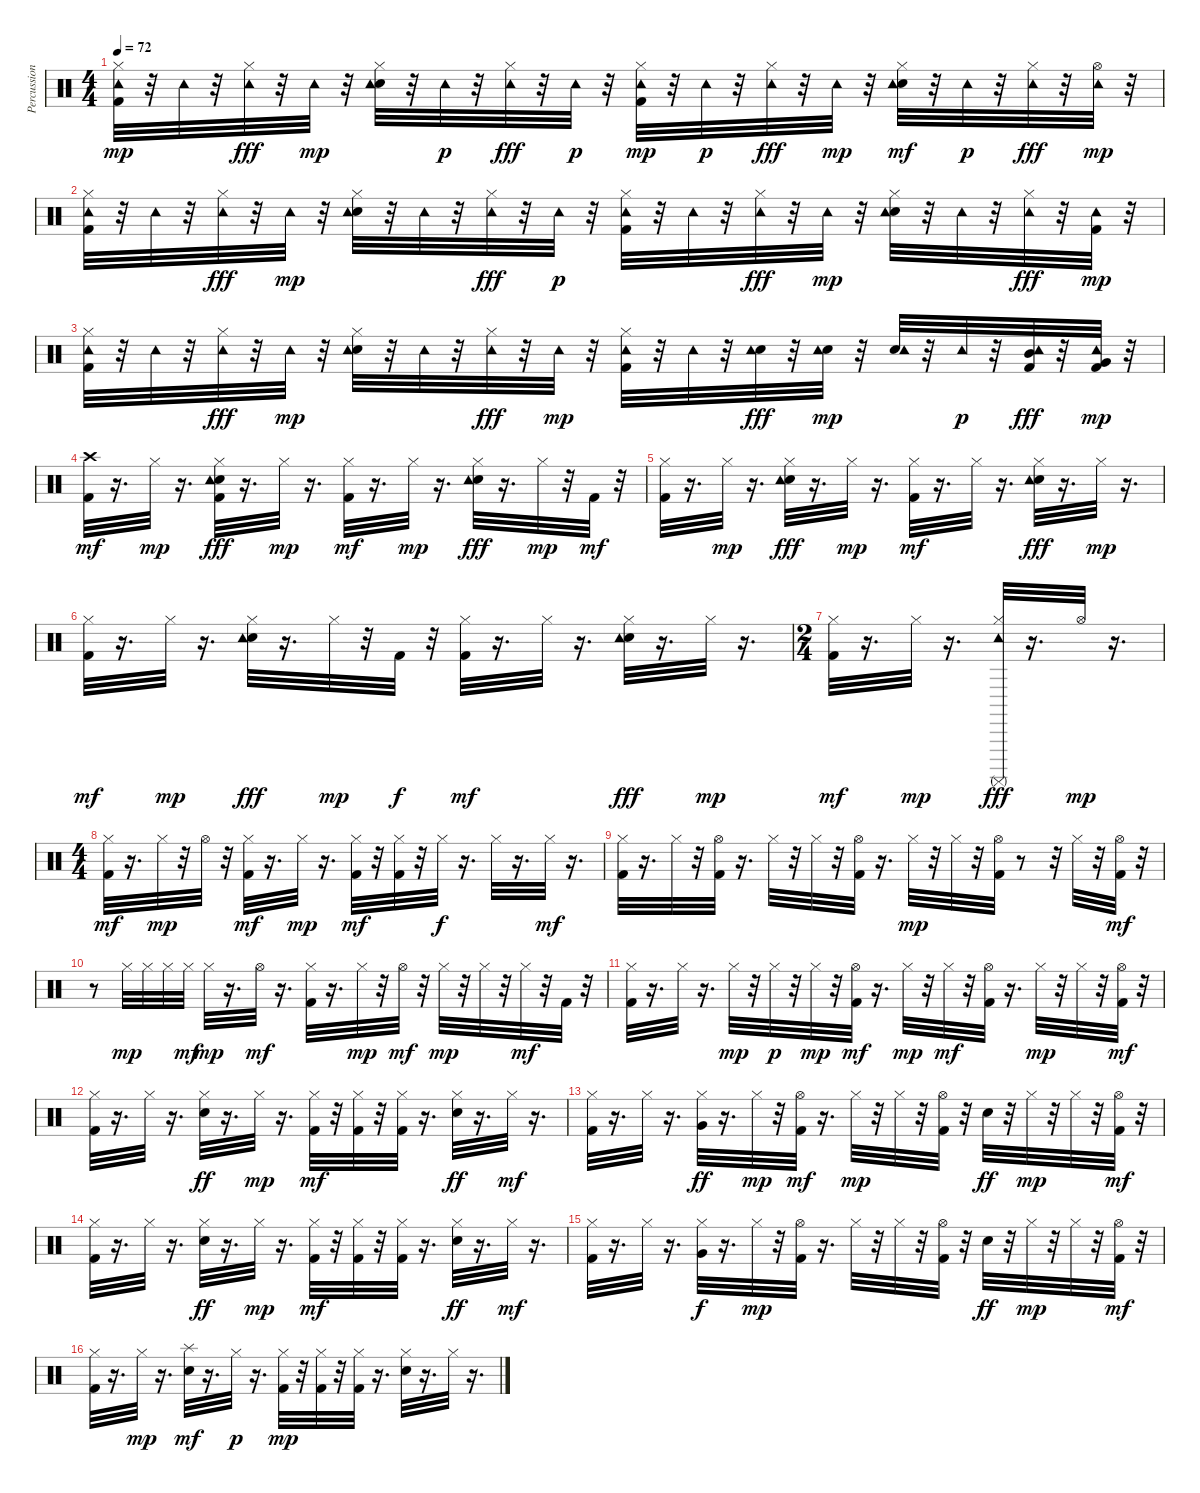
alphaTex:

\track ("Percussion" "Percussion") {instrument percussion}
\staff {score}
\articulation defaults
\ts (4 4)
\tempo 72
\clef neutral
\ks c
("Hi-Hat (closed)" "Kick (hit) 2" "Tambourine (hit)").32{dy mp} r.32 "Tambourine (hit)".32 r.32 ("Hi-Hat (closed)" "Tambourine (hit)").32{dy fff} r.32 "Tambourine (hit)".32{dy mp} r.32 ("Hi-Hat (closed)" "Snare (hit) 2" "Tambourine (hit)").32 r.32 "Tambourine (hit)".32{dy p} r.32 ("Hi-Hat (closed)" "Tambourine (hit)").32{dy fff} r.32 "Tambourine (hit)".32{dy p} r.32 ("Kick (hit) 2" "Hi-Hat (closed)" "Tambourine (hit)").32{dy mp} r.32 "Tambourine (hit)".32{dy p} r.32 ("Hi-Hat (closed)" "Tambourine (hit)").32{dy fff} r.32 "Tambourine (hit)".32{dy mp} r.32 ("Hi-Hat (closed)" "Snare (hit) 2" "Tambourine (hit)").32{dy mf} r.32 "Tambourine (hit)".32{dy p} r.32 ("Hi-Hat (closed)" "Tambourine (hit)").32{dy fff} r.32 ("Hi-Hat (open)" "Tambourine (hit)").32{dy mp} r.32 |
("Hi-Hat (closed)" "Kick (hit) 2" "Tambourine (hit)").32 r.32 "Tambourine (hit)".32 r.32 ("Hi-Hat (closed)" "Tambourine (hit)").32{dy fff} r.32 "Tambourine (hit)".32{dy mp} r.32 ("Hi-Hat (closed)" "Snare (hit) 2" "Tambourine (hit)").32 r.32 "Tambourine (hit)".32 r.32 ("Hi-Hat (closed)" "Tambourine (hit)").32{dy fff} r.32 "Tambourine (hit)".32{dy p} r.32 ("Kick (hit) 2" "Hi-Hat (closed)" "Tambourine (hit)").32 r.32 "Tambourine (hit)".32 r.32 ("Hi-Hat (closed)" "Tambourine (hit)").32{dy fff} r.32 "Tambourine (hit)".32{dy mp} r.32 ("Hi-Hat (closed)" "Snare (hit) 2" "Tambourine (hit)").32 r.32 "Tambourine (hit)".32 r.32 ("Hi-Hat (closed)" "Tambourine (hit)").32{dy fff} r.32 ("Kick (hit) 2" "Tambourine (hit)").32{dy mp} r.32 |
("Hi-Hat (closed)" "Kick (hit) 2" "Tambourine (hit)").32 r.32 "Tambourine (hit)".32 r.32 ("Hi-Hat (closed)" "Tambourine (hit)").32{dy fff} r.32 "Tambourine (hit)".32{dy mp} r.32 ("Hi-Hat (closed)" "Snare (hit) 2" "Tambourine (hit)").32 r.32 "Tambourine (hit)".32 r.32 ("Hi-Hat (closed)" "Tambourine (hit)").32{dy fff} r.32 "Tambourine (hit)".32{dy mp} r.32 ("Kick (hit) 2" "Hi-Hat (closed)" "Tambourine (hit)").32 r.32 "Tambourine (hit)".32 r.32 ("Snare (hit) 2" "Tambourine (hit)").32{dy fff} r.32 ("Snare (hit) 2" "Tambourine (hit)").32{dy mp} r.32 ("Snare (hit) 2" "Tambourine (hit)").32 r.32 "Tambourine (hit)".32{dy p} r.32 ("Mid Tom (hit)" "Tambourine (hit)" "Kick (hit) 2").32{dy fff} r.32 ("Very Low Tom (hit)" "Tambourine (hit)" "Kick (hit) 2").32{dy mp} r.32 |
("Crash high (hit)" "Kick (hit) 2").32{dy mf} r.16{d} "Hi-Hat (closed)".32{dy mp} r.16{d} ("Snare (hit) 2" "Hi-Hat (closed)" "Kick (hit) 2" "Tambourine (hit)").32{dy fff} r.16{d} "Hi-Hat (closed)".32{dy mp} r.16{d} ("Hi-Hat (closed)" "Kick (hit) 2").32{dy mf} r.16{d} "Hi-Hat (closed)".32{dy mp} r.16{d} ("Snare (hit) 2" "Hi-Hat (closed)" "Tambourine (hit)").32{dy fff} r.16{d} "Hi-Hat (closed)".32{dy mp} r.32 "Kick (hit) 2".32{dy mf} r.32 |
("Hi-Hat (closed)" "Kick (hit) 2").32 r.16{d} "Hi-Hat (closed)".32{dy mp} r.16{d} ("Hi-Hat (closed)" "Snare (hit) 2" "Tambourine (hit)").32{dy fff} r.16{d} "Hi-Hat (closed)".32{dy mp} r.16{d} ("Kick (hit) 2" "Hi-Hat (closed)").32{dy mf} r.16{d} "Hi-Hat (closed)".32 r.16{d} ("Hi-Hat (closed)" "Snare (hit) 2" "Tambourine (hit)").32{dy fff} r.16{d} "Hi-Hat (closed)".32{dy mp} r.16{d} |
("Hi-Hat (closed)" "Kick (hit) 2").32{dy mf} r.16{d} "Hi-Hat (closed)".32{dy mp} r.16{d} ("Hi-Hat (closed)" "Snare (hit) 2" "Tambourine (hit)").32{dy fff} r.16{d} "Hi-Hat (closed)".32{dy mp} r.32 "Kick (hit) 2".32{dy f} r.32 ("Kick (hit) 2" "Hi-Hat (closed)").32{dy mf} r.16{d} "Hi-Hat (closed)".32 r.16{d} ("Hi-Hat (closed)" "Snare (hit) 2" "Tambourine (hit)").32{dy fff} r.16{d} "Hi-Hat (closed)".32{dy mp} r.16{d} |
\ts (2 4)
("Hi-Hat (closed)" "Kick (hit) 2").32{dy mf} r.16{d} "Hi-Hat (closed)".32{dy mp} r.16{d} ("Hi-Hat (closed)" "Surdo (mute)" "Tambourine (hit)").32{dy fff} r.16{d} "Hi-Hat (open)".32{dy mp} r.16{d} |
\ts (4 4)
("Hi-Hat (closed)" "Kick (hit) 2").32{dy mf} r.16{d} "Hi-Hat (closed)".32{dy mp} r.32 "Hi-Hat (open)".32 r.32 ("Hi-Hat (closed)" "Kick (hit) 2").32{dy mf} r.16{d} "Hi-Hat (closed)".32{dy mp} r.16{d} ("Hi-Hat (closed)" "Kick (hit) 2").32{dy mf} r.32 ("Hi-Hat (closed)" "Kick (hit) 2").32 r.32 "Hi-Hat (closed)".32{dy f} r.16{d} "Hi-Hat (closed)".32 r.16{d} "Hi-Hat (closed)".32{dy mf} r.16{d} |
("Kick (hit) 2" "Hi-Hat (closed)").32 r.16{d} "Hi-Hat (closed)".32 r.32 ("Kick (hit) 2" "Hi-Hat (open)").32 r.16{d} "Hi-Hat (closed)".32 r.32 "Hi-Hat (closed)".32 r.32 ("Kick (hit) 2" "Hi-Hat (open)").32 r.16{d} "Hi-Hat (closed)".32{dy mp} r.32 "Hi-Hat (closed)".32 r.32 ("Hi-Hat (open)" "Kick (hit) 2").32 r.8 r.32 "Hi-Hat (closed)".32 r.32 ("Kick (hit) 2" "Hi-Hat (open)").32{dy mf} r.32 |
r.8 "Hi-Hat (closed)".32{dy mp} "Hi-Hat (closed)".32 "Hi-Hat (closed)".32 "Hi-Hat (closed)".32{dy mf} "Hi-Hat (closed)".32{dy mp} r.16{d} "Hi-Hat (open)".32{dy mf} r.16{d} ("Hi-Hat (closed)" "Kick (hit) 2").32 r.16{d} "Hi-Hat (closed)".32{dy mp} r.32 "Hi-Hat (open)".32{dy mf} r.32 "Hi-Hat (closed)".32{dy mp} r.32 "Hi-Hat (closed)".32 r.32 "Hi-Hat (closed)".32{dy mf} r.32 "Kick (hit) 2".32 r.32 |
("Hi-Hat (closed)" "Kick (hit) 2").32 r.16{d} "Hi-Hat (closed)".32 r.16{d} "Hi-Hat (closed)".32{dy mp} r.32 "Hi-Hat (closed)".32{dy p} r.32 "Hi-Hat (closed)".32{dy mp} r.32 ("Hi-Hat (open)" "Kick (hit) 2").32{dy mf} r.16{d} "Hi-Hat (closed)".32{dy mp} r.32 "Hi-Hat (closed)".32{dy mf} r.32 ("Kick (hit) 2" "Hi-Hat (open)").32 r.16{d} "Hi-Hat (closed)".32{dy mp} r.32 "Hi-Hat (closed)".32 r.32 ("Kick (hit) 2" "Hi-Hat (open)").32{dy mf} r.32 |
("Kick (hit) 2" "Hi-Hat (closed)").32 r.16{d} "Hi-Hat (closed)".32 r.16{d} ("Snare (hit) 2" "Hi-Hat (closed)").32{dy ff} r.16{d} "Hi-Hat (closed)".32{dy mp} r.16{d} ("Kick (hit) 2" "Hi-Hat (closed)").32{dy mf} r.32 ("Hi-Hat (closed)" "Kick (hit) 2").32 r.32 ("Hi-Hat (closed)" "Kick (hit) 2").32 r.16{d} ("Hi-Hat (closed)" "Snare (hit) 2").32{dy ff} r.16{d} "Hi-Hat (closed)".32{dy mf} r.16{d} |
("Hi-Hat (closed)" "Kick (hit) 2").32 r.16{d} "Hi-Hat (closed)".32 r.16{d} ("Very Low Tom (hit)" "Hi-Hat (closed)").32{dy ff} r.16{d} "Hi-Hat (closed)".32{dy mp} r.32 ("Hi-Hat (open)" "Kick (hit) 2").32{dy mf} r.16{d} "Hi-Hat (closed)".32{dy mp} r.32 "Hi-Hat (closed)".32 r.32 ("Kick (hit) 2" "Hi-Hat (open)").32 r.32 "Snare (hit) 2".32{dy ff} r.32 "Hi-Hat (closed)".32{dy mp} r.32 "Hi-Hat (closed)".32 r.32 ("Kick (hit) 2" "Hi-Hat (open)").32{dy mf} r.32 |
("Kick (hit) 2" "Hi-Hat (closed)").32 r.16{d} "Hi-Hat (closed)".32 r.16{d} ("Snare (hit) 2" "Hi-Hat (closed)").32{dy ff} r.16{d} "Hi-Hat (closed)".32{dy mp} r.16{d} ("Kick (hit) 2" "Hi-Hat (closed)").32{dy mf} r.32 ("Hi-Hat (closed)" "Kick (hit) 2").32 r.32 ("Hi-Hat (closed)" "Kick (hit) 2").32 r.16{d} ("Hi-Hat (closed)" "Snare (hit) 2").32{dy ff} r.16{d} "Hi-Hat (closed)".32{dy mf} r.16{d} |
("Hi-Hat (closed)" "Kick (hit) 2").32 r.16{d} "Hi-Hat (closed)".32 r.16{d} ("Very Low Tom (hit)" "Hi-Hat (closed)").32{dy f} r.16{d} "Hi-Hat (closed)".32{dy mp} r.32 ("Hi-Hat (open)" "Kick (hit) 2").32 r.16{d} "Hi-Hat (closed)".32 r.32 "Hi-Hat (closed)".32 r.32 ("Kick (hit) 2" "Hi-Hat (open)").32 r.32 "Snare (hit) 2".32{dy ff} r.32 "Hi-Hat (closed)".32{dy mp} r.32 "Hi-Hat (closed)".32 r.32 ("Kick (hit) 2" "Hi-Hat (open)").32{dy mf} r.32 |
("Kick (hit) 2" "Hi-Hat (closed)").32 r.16{d} "Hi-Hat (closed)".32{dy mp} r.16{d} ("Snare (hit) 2" "Splash (hit)").32{dy mf} r.16{d} "Hi-Hat (closed)".32{dy p} r.16{d} ("Kick (hit) 2" "Hi-Hat (closed)").32{dy mp} r.32 ("Hi-Hat (closed)" "Kick (hit) 2").32 r.32 ("Hi-Hat (closed)" "Kick (hit) 2").32 r.16{d} ("Hi-Hat (closed)" "Snare (hit) 2").32 r.16{d} "Hi-Hat (closed)".32 r.16{d}
